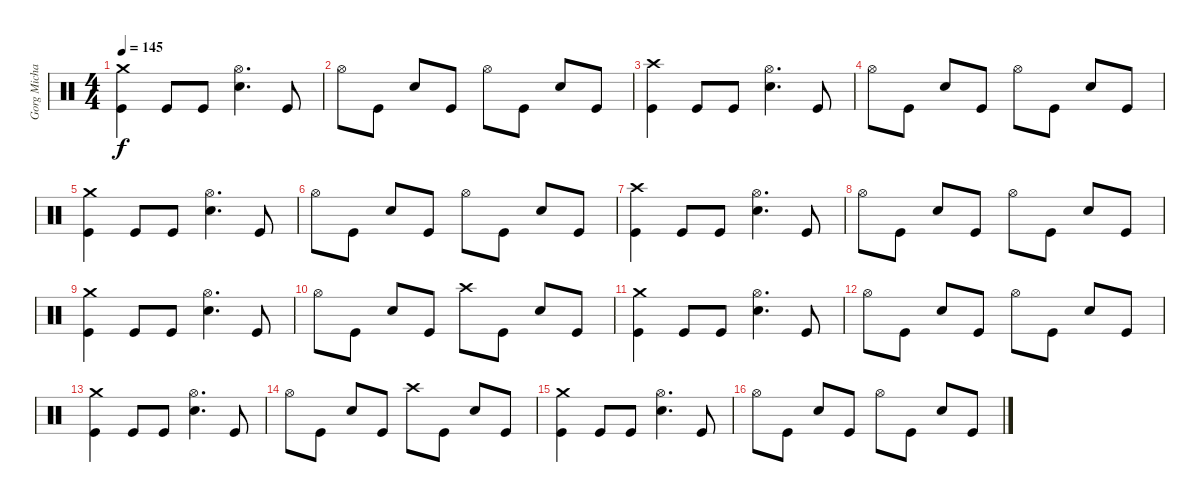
\track ("Gorg Michael" "Gorg Micha") {instrument percussion}
\staff {score}
\articulation defaults
\ts (4 4)
\tempo 145
\clef neutral
\ks c
("Crash medium (hit)" "Kick (hit)").4{dy f} "Kick (hit)".8 "Kick (hit)".8 ("Hi-Hat (open)" "Snare (hit) 2").4{d} "Kick (hit)".8 |
"Hi-Hat (open)".8 "Kick (hit)".8 "Snare (hit) 2".8 "Kick (hit)".8 "Hi-Hat (open)".8 "Kick (hit)".8 "Snare (hit) 2".8 "Kick (hit)".8 |
("Crash high (hit)" "Kick (hit)").4 "Kick (hit)".8 "Kick (hit)".8 ("Hi-Hat (open)" "Snare (hit) 2").4{d} "Kick (hit)".8 |
"Hi-Hat (open)".8 "Kick (hit)".8 "Snare (hit) 2".8 "Kick (hit)".8 "Hi-Hat (open)".8 "Kick (hit)".8 "Snare (hit) 2".8 "Kick (hit)".8 |
("Crash medium (hit)" "Kick (hit)").4 "Kick (hit)".8 "Kick (hit)".8 ("Hi-Hat (open)" "Snare (hit) 2").4{d} "Kick (hit)".8 |
"Hi-Hat (open)".8 "Kick (hit)".8 "Snare (hit) 2".8 "Kick (hit)".8 "Hi-Hat (open)".8 "Kick (hit)".8 "Snare (hit) 2".8 "Kick (hit)".8 |
("Crash high (hit)" "Kick (hit)").4 "Kick (hit)".8 "Kick (hit)".8 ("Hi-Hat (open)" "Snare (hit) 2").4{d} "Kick (hit)".8 |
"Hi-Hat (open)".8 "Kick (hit)".8 "Snare (hit) 2".8 "Kick (hit)".8 "Hi-Hat (open)".8 "Kick (hit)".8 "Snare (hit) 2".8 "Kick (hit)".8 |
("Crash medium (hit)" "Kick (hit)").4 "Kick (hit)".8 "Kick (hit)".8 ("Hi-Hat (open)" "Snare (hit) 2").4{d} "Kick (hit)".8 |
"Hi-Hat (open)".8 "Kick (hit)".8 "Snare (hit) 2".8 "Kick (hit)".8 "Crash high (hit)".8 "Kick (hit)".8 "Snare (hit) 2".8 "Kick (hit)".8 |
("Crash medium (hit)" "Kick (hit)").4 "Kick (hit)".8 "Kick (hit)".8 ("Hi-Hat (open)" "Snare (hit) 2").4{d} "Kick (hit)".8 |
"Hi-Hat (open)".8 "Kick (hit)".8 "Snare (hit) 2".8 "Kick (hit)".8 "Hi-Hat (open)".8 "Kick (hit)".8 "Snare (hit) 2".8 "Kick (hit)".8 |
("Crash medium (hit)" "Kick (hit)").4 "Kick (hit)".8 "Kick (hit)".8 ("Hi-Hat (open)" "Snare (hit) 2").4{d} "Kick (hit)".8 |
"Hi-Hat (open)".8 "Kick (hit)".8 "Snare (hit) 2".8 "Kick (hit)".8 "Crash high (hit)".8 "Kick (hit)".8 "Snare (hit) 2".8 "Kick (hit)".8 |
("Crash medium (hit)" "Kick (hit)").4 "Kick (hit)".8 "Kick (hit)".8 ("Hi-Hat (open)" "Snare (hit) 2").4{d} "Kick (hit)".8 |
"Hi-Hat (open)".8 "Kick (hit)".8 "Snare (hit) 2".8 "Kick (hit)".8 "Hi-Hat (open)".8 "Kick (hit)".8 "Snare (hit) 2".8 "Kick (hit)".8
